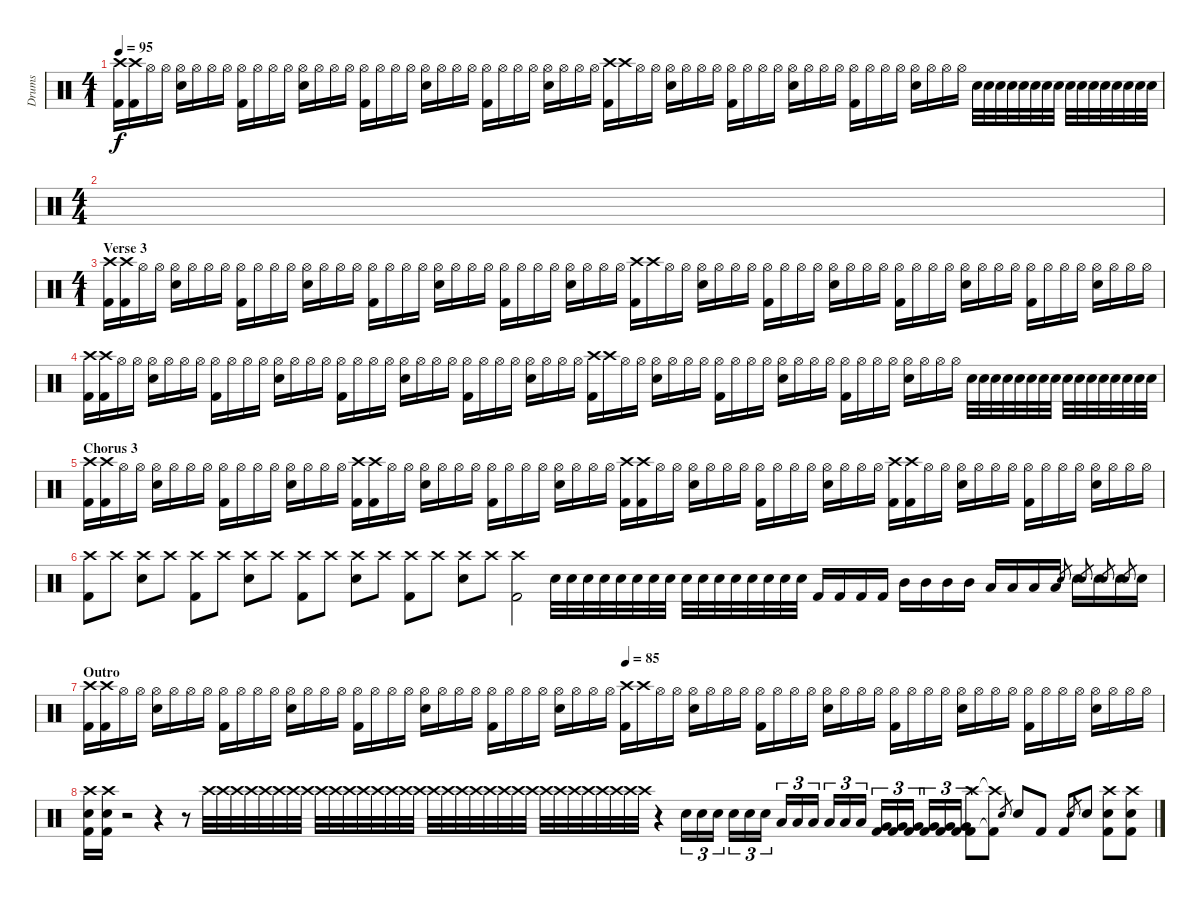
\track ("Drums" "Drums") {instrument percussion}
\staff {score}
\articulation defaults
\ts (4 1)
\tempo 95
\clef neutral
\ks c
("Crash high (hit)" "Kick (hit) 2").16{dy f} ("Crash high (hit)" "Kick (hit) 2").16 "Hi-Hat (open)".16 "Hi-Hat (open)".16 ("Hi-Hat (open)" "Electric Snare (hit)").16 "Hi-Hat (open)".16 "Hi-Hat (open)".16 "Hi-Hat (open)".16 ("Hi-Hat (open)" "Kick (hit) 2").16 "Hi-Hat (open)".16 "Hi-Hat (open)".16 "Hi-Hat (open)".16 ("Hi-Hat (open)" "Electric Snare (hit)").16 "Hi-Hat (open)".16 "Hi-Hat (open)".16 "Hi-Hat (open)".16 ("Hi-Hat (open)" "Kick (hit) 2").16 "Hi-Hat (open)".16 "Hi-Hat (open)".16 "Hi-Hat (open)".16 ("Hi-Hat (open)" "Electric Snare (hit)").16 "Hi-Hat (open)".16 "Hi-Hat (open)".16 "Hi-Hat (open)".16 ("Hi-Hat (open)" "Kick (hit) 2").16 "Hi-Hat (open)".16 "Hi-Hat (open)".16 "Hi-Hat (open)".16 ("Hi-Hat (open)" "Electric Snare (hit)").16 "Hi-Hat (open)".16 "Hi-Hat (open)".16 "Hi-Hat (open)".16 ("Crash high (hit)" "Kick (hit) 2").16 "Crash high (hit)".16 "Hi-Hat (open)".16 "Hi-Hat (open)".16 ("Hi-Hat (open)" "Electric Snare (hit)").16 "Hi-Hat (open)".16 "Hi-Hat (open)".16 "Hi-Hat (open)".16 ("Hi-Hat (open)" "Kick (hit) 2").16 "Hi-Hat (open)".16 "Hi-Hat (open)".16 "Hi-Hat (open)".16 ("Hi-Hat (open)" "Electric Snare (hit)").16 "Hi-Hat (open)".16 "Hi-Hat (open)".16 "Hi-Hat (open)".16 ("Hi-Hat (open)" "Kick (hit) 2").16 "Hi-Hat (open)".16 "Hi-Hat (open)".16 "Hi-Hat (open)".16 ("Hi-Hat (open)" "Electric Snare (hit)").16 "Hi-Hat (open)".16 "Hi-Hat (open)".16 "Hi-Hat (open)".16 "Electric Snare (hit)".32 "Electric Snare (hit)".32 "Electric Snare (hit)".32 "Electric Snare (hit)".32 "Electric Snare (hit)".32 "Electric Snare (hit)".32 "Electric Snare (hit)".32 "Electric Snare (hit)".32 "Electric Snare (hit)".32 "Electric Snare (hit)".32 "Electric Snare (hit)".32 "Electric Snare (hit)".32 "Electric Snare (hit)".32 "Electric Snare (hit)".32 "Electric Snare (hit)".32 "Electric Snare (hit)".32 |
\ts (4 4)
|
\ts (4 1)
\section ("" "Verse 3")
("Crash high (hit)" "Kick (hit) 2").16 ("Crash high (hit)" "Kick (hit) 2").16 "Hi-Hat (open)".16 "Hi-Hat (open)".16 ("Hi-Hat (open)" "Electric Snare (hit)").16 "Hi-Hat (open)".16 "Hi-Hat (open)".16 "Hi-Hat (open)".16 ("Hi-Hat (open)" "Kick (hit) 2").16 "Hi-Hat (open)".16 "Hi-Hat (open)".16 "Hi-Hat (open)".16 ("Hi-Hat (open)" "Electric Snare (hit)").16 "Hi-Hat (open)".16 "Hi-Hat (open)".16 "Hi-Hat (open)".16 ("Hi-Hat (open)" "Kick (hit) 2").16 "Hi-Hat (open)".16 "Hi-Hat (open)".16 "Hi-Hat (open)".16 ("Hi-Hat (open)" "Electric Snare (hit)").16 "Hi-Hat (open)".16 "Hi-Hat (open)".16 "Hi-Hat (open)".16 ("Hi-Hat (open)" "Kick (hit) 2").16 "Hi-Hat (open)".16 "Hi-Hat (open)".16 "Hi-Hat (open)".16 ("Hi-Hat (open)" "Electric Snare (hit)").16 "Hi-Hat (open)".16 "Hi-Hat (open)".16 "Hi-Hat (open)".16 ("Crash high (hit)" "Kick (hit) 2").16 "Crash high (hit)".16 "Hi-Hat (open)".16 "Hi-Hat (open)".16 ("Hi-Hat (open)" "Electric Snare (hit)").16 "Hi-Hat (open)".16 "Hi-Hat (open)".16 "Hi-Hat (open)".16 ("Hi-Hat (open)" "Kick (hit) 2").16 "Hi-Hat (open)".16 "Hi-Hat (open)".16 "Hi-Hat (open)".16 ("Hi-Hat (open)" "Electric Snare (hit)").16 "Hi-Hat (open)".16 "Hi-Hat (open)".16 "Hi-Hat (open)".16 ("Hi-Hat (open)" "Kick (hit) 2").16 "Hi-Hat (open)".16 "Hi-Hat (open)".16 "Hi-Hat (open)".16 ("Hi-Hat (open)" "Electric Snare (hit)").16 "Hi-Hat (open)".16 "Hi-Hat (open)".16 "Hi-Hat (open)".16 ("Hi-Hat (open)" "Kick (hit) 2").16 "Hi-Hat (open)".16 "Hi-Hat (open)".16 "Hi-Hat (open)".16 ("Hi-Hat (open)" "Electric Snare (hit)").16 "Hi-Hat (open)".16 "Hi-Hat (open)".16 "Hi-Hat (open)".16 |
("Crash high (hit)" "Kick (hit) 2").16 ("Crash high (hit)" "Kick (hit) 2").16 "Hi-Hat (open)".16 "Hi-Hat (open)".16 ("Hi-Hat (open)" "Electric Snare (hit)").16 "Hi-Hat (open)".16 "Hi-Hat (open)".16 "Hi-Hat (open)".16 ("Hi-Hat (open)" "Kick (hit) 2").16 "Hi-Hat (open)".16 "Hi-Hat (open)".16 "Hi-Hat (open)".16 ("Hi-Hat (open)" "Electric Snare (hit)").16 "Hi-Hat (open)".16 "Hi-Hat (open)".16 "Hi-Hat (open)".16 ("Hi-Hat (open)" "Kick (hit) 2").16 "Hi-Hat (open)".16 "Hi-Hat (open)".16 "Hi-Hat (open)".16 ("Hi-Hat (open)" "Electric Snare (hit)").16 "Hi-Hat (open)".16 "Hi-Hat (open)".16 "Hi-Hat (open)".16 ("Hi-Hat (open)" "Kick (hit) 2").16 "Hi-Hat (open)".16 "Hi-Hat (open)".16 "Hi-Hat (open)".16 ("Hi-Hat (open)" "Electric Snare (hit)").16 "Hi-Hat (open)".16 "Hi-Hat (open)".16 "Hi-Hat (open)".16 ("Crash high (hit)" "Kick (hit) 2").16 "Crash high (hit)".16 "Hi-Hat (open)".16 "Hi-Hat (open)".16 ("Hi-Hat (open)" "Electric Snare (hit)").16 "Hi-Hat (open)".16 "Hi-Hat (open)".16 "Hi-Hat (open)".16 ("Hi-Hat (open)" "Kick (hit) 2").16 "Hi-Hat (open)".16 "Hi-Hat (open)".16 "Hi-Hat (open)".16 ("Hi-Hat (open)" "Electric Snare (hit)").16 "Hi-Hat (open)".16 "Hi-Hat (open)".16 "Hi-Hat (open)".16 ("Hi-Hat (open)" "Kick (hit) 2").16 "Hi-Hat (open)".16 "Hi-Hat (open)".16 "Hi-Hat (open)".16 ("Hi-Hat (open)" "Electric Snare (hit)").16 "Hi-Hat (open)".16 "Hi-Hat (open)".16 "Hi-Hat (open)".16 "Electric Snare (hit)".32 "Electric Snare (hit)".32 "Electric Snare (hit)".32 "Electric Snare (hit)".32 "Electric Snare (hit)".32 "Electric Snare (hit)".32 "Electric Snare (hit)".32 "Electric Snare (hit)".32 "Electric Snare (hit)".32 "Electric Snare (hit)".32 "Electric Snare (hit)".32 "Electric Snare (hit)".32 "Electric Snare (hit)".32 "Electric Snare (hit)".32 "Electric Snare (hit)".32 "Electric Snare (hit)".32 |
\section ("" "Chorus 3")
("Crash high (hit)" "Kick (hit) 2").16 ("Crash high (hit)" "Kick (hit) 2").16 "Hi-Hat (open)".16 "Hi-Hat (open)".16 ("Hi-Hat (open)" "Electric Snare (hit)").16 "Hi-Hat (open)".16 "Hi-Hat (open)".16 "Hi-Hat (open)".16 ("Hi-Hat (open)" "Kick (hit) 2").16 "Hi-Hat (open)".16 "Hi-Hat (open)".16 "Hi-Hat (open)".16 ("Hi-Hat (open)" "Electric Snare (hit)").16 "Hi-Hat (open)".16 "Hi-Hat (open)".16 "Hi-Hat (open)".16 ("Crash high (hit)" "Kick (hit) 2").16 ("Crash high (hit)" "Kick (hit) 2").16 "Hi-Hat (open)".16 "Hi-Hat (open)".16 ("Hi-Hat (open)" "Electric Snare (hit)").16 "Hi-Hat (open)".16 "Hi-Hat (open)".16 "Hi-Hat (open)".16 ("Hi-Hat (open)" "Kick (hit) 2").16 "Hi-Hat (open)".16 "Hi-Hat (open)".16 "Hi-Hat (open)".16 ("Hi-Hat (open)" "Electric Snare (hit)").16 "Hi-Hat (open)".16 "Hi-Hat (open)".16 "Hi-Hat (open)".16 ("Crash high (hit)" "Kick (hit) 2").16 ("Crash high (hit)" "Kick (hit) 2").16 "Hi-Hat (open)".16 "Hi-Hat (open)".16 ("Hi-Hat (open)" "Electric Snare (hit)").16 "Hi-Hat (open)".16 "Hi-Hat (open)".16 "Hi-Hat (open)".16 ("Hi-Hat (open)" "Kick (hit) 2").16 "Hi-Hat (open)".16 "Hi-Hat (open)".16 "Hi-Hat (open)".16 ("Hi-Hat (open)" "Electric Snare (hit)").16 "Hi-Hat (open)".16 "Hi-Hat (open)".16 "Hi-Hat (open)".16 ("Crash high (hit)" "Kick (hit) 2").16 ("Crash high (hit)" "Kick (hit) 2").16 "Hi-Hat (open)".16 "Hi-Hat (open)".16 ("Hi-Hat (open)" "Electric Snare (hit)").16 "Hi-Hat (open)".16 "Hi-Hat (open)".16 "Hi-Hat (open)".16 ("Hi-Hat (open)" "Kick (hit) 2").16 "Hi-Hat (open)".16 "Hi-Hat (open)".16 "Hi-Hat (open)".16 ("Hi-Hat (open)" "Electric Snare (hit)").16 "Hi-Hat (open)".16 "Hi-Hat (open)".16 "Hi-Hat (open)".16 |
("Crash high (hit)" "Kick (hit) 2").8 "Crash high (hit)".8 ("Crash high (hit)" "Electric Snare (hit)").8 "Crash high (hit)".8 ("Crash high (hit)" "Kick (hit) 2").8 "Crash high (hit)".8 ("Crash high (hit)" "Electric Snare (hit)").8 "Crash high (hit)".8 ("Crash high (hit)" "Kick (hit) 2").8 "Crash high (hit)".8 ("Crash high (hit)" "Electric Snare (hit)").8 "Crash high (hit)".8 ("Crash high (hit)" "Kick (hit) 2").8 "Crash high (hit)".8 ("Crash high (hit)" "Electric Snare (hit)").8 "Crash high (hit)".8 ("Crash high (hit)" "Kick (hit) 2").2 "Electric Snare (hit)".32 "Electric Snare (hit)".32 "Electric Snare (hit)".32 "Electric Snare (hit)".32 "Electric Snare (hit)".32 "Electric Snare (hit)".32 "Electric Snare (hit)".32 "Electric Snare (hit)".32 "Electric Snare (hit)".32 "Electric Snare (hit)".32 "Electric Snare (hit)".32 "Electric Snare (hit)".32 "Electric Snare (hit)".32 "Electric Snare (hit)".32 "Electric Snare (hit)".32 "Electric Snare (hit)".32 "Kick (hit) 2".16 "Kick (hit) 2".16 "Kick (hit) 2".16 "Kick (hit) 2".16 "Mid Tom (hit)".16 "Mid Tom (hit)".16 "Mid Tom (hit)".16 "Mid Tom (hit)".16 "Low Tom (hit)".16 "Low Tom (hit)".16 "Low Tom (hit)".16 "Low Tom (hit)".16 "Electric Snare (hit)".8{gr} "Electric Snare (hit)".16 "Electric Snare (hit)".8{gr} "Electric Snare (hit)".16 "Electric Snare (hit)".8{gr} "Electric Snare (hit)".16 "Electric Snare (hit)".8{gr} "Electric Snare (hit)".16 |
\section ("" "Outro")
\tempo (85 0.5)
("Crash high (hit)" "Kick (hit) 2").16 ("Crash high (hit)" "Kick (hit) 2").16 "Hi-Hat (open)".16 "Hi-Hat (open)".16 ("Hi-Hat (open)" "Electric Snare (hit)").16 "Hi-Hat (open)".16 "Hi-Hat (open)".16 "Hi-Hat (open)".16 ("Hi-Hat (open)" "Kick (hit) 2").16 "Hi-Hat (open)".16 "Hi-Hat (open)".16 "Hi-Hat (open)".16 ("Hi-Hat (open)" "Electric Snare (hit)").16 "Hi-Hat (open)".16 "Hi-Hat (open)".16 "Hi-Hat (open)".16 ("Hi-Hat (open)" "Kick (hit) 2").16 "Hi-Hat (open)".16 "Hi-Hat (open)".16 "Hi-Hat (open)".16 ("Hi-Hat (open)" "Electric Snare (hit)").16 "Hi-Hat (open)".16 "Hi-Hat (open)".16 "Hi-Hat (open)".16 ("Hi-Hat (open)" "Kick (hit) 2").16 "Hi-Hat (open)".16 "Hi-Hat (open)".16 "Hi-Hat (open)".16 ("Hi-Hat (open)" "Electric Snare (hit)").16 "Hi-Hat (open)".16 "Hi-Hat (open)".16 "Hi-Hat (open)".16 ("Crash high (hit)" "Kick (hit) 2").16 "Crash high (hit)".16 "Hi-Hat (open)".16 "Hi-Hat (open)".16 ("Hi-Hat (open)" "Electric Snare (hit)").16 "Hi-Hat (open)".16 "Hi-Hat (open)".16 "Hi-Hat (open)".16 ("Hi-Hat (open)" "Kick (hit) 2").16 "Hi-Hat (open)".16 "Hi-Hat (open)".16 "Hi-Hat (open)".16 ("Hi-Hat (open)" "Electric Snare (hit)").16 "Hi-Hat (open)".16 "Hi-Hat (open)".16 "Hi-Hat (open)".16 ("Hi-Hat (open)" "Kick (hit) 2").16 "Hi-Hat (open)".16 "Hi-Hat (open)".16 "Hi-Hat (open)".16 ("Hi-Hat (open)" "Electric Snare (hit)").16 "Hi-Hat (open)".16 "Hi-Hat (open)".16 "Hi-Hat (open)".16 ("Hi-Hat (open)" "Kick (hit) 2").16 "Hi-Hat (open)".16 "Hi-Hat (open)".16 "Hi-Hat (open)".16 ("Hi-Hat (open)" "Electric Snare (hit)").16 "Hi-Hat (open)".16 "Hi-Hat (open)".16 "Hi-Hat (open)".16 |
("Crash high (hit)" "Electric Snare (hit)" "Kick (hit) 2").16 ("Crash high (hit)" "Electric Snare (hit)" "Kick (hit) 2").16 r.2 r.4 r.8 "Crash high (hit)".32 "Crash high (hit)".32 "Crash high (hit)".32 "Crash high (hit)".32 "Crash high (hit)".32 "Crash high (hit)".32 "Crash high (hit)".32 "Crash high (hit)".32 "Crash high (hit)".32 "Crash high (hit)".32 "Crash high (hit)".32 "Crash high (hit)".32 "Crash high (hit)".32 "Crash high (hit)".32 "Crash high (hit)".32 "Crash high (hit)".32 "Crash high (hit)".32 "Crash high (hit)".32 "Crash high (hit)".32 "Crash high (hit)".32 "Crash high (hit)".32 "Crash high (hit)".32 "Crash high (hit)".32 "Crash high (hit)".32 "Crash high (hit)".32 "Crash high (hit)".32 "Crash high (hit)".32 "Crash high (hit)".32 "Crash high (hit)".32 "Crash high (hit)".32 "Crash high (hit)".32 "Crash high (hit)".32 r.4 "Electric Snare (hit)".16{tu (3 2)} "Electric Snare (hit)".16{tu (3 2)} "Electric Snare (hit)".16{tu (3 2)} "Electric Snare (hit)".16{tu (3 2)} "Electric Snare (hit)".16{tu (3 2)} "Electric Snare (hit)".16{tu (3 2)} "Low Tom (hit)".16{tu (3 2)} "Low Tom (hit)".16{tu (3 2)} "Low Tom (hit)".16{tu (3 2)} "Low Tom (hit)".16{tu (3 2)} "Low Tom (hit)".16{tu (3 2)} "Low Tom (hit)".16{tu (3 2)} ("Very Low Tom (hit)" "Kick (hit) 2").16{tu (3 2)} ("Very Low Tom (hit)" "Kick (hit) 2").16{tu (3 2)} ("Very Low Tom (hit)" "Kick (hit) 2").16{tu (3 2)} ("Very Low Tom (hit)" "Kick (hit) 2").16{tu (3 2)} ("Very Low Tom (hit)" "Kick (hit) 2").16{tu (3 2)} ("Very Low Tom (hit)" "Kick (hit) 2").16{tu (3 2)} ("Crash high (hit)" "Kick (hit) 2").8 ("Crash high (hit)"{t} "Kick (hit) 2"{t}).8 "Electric Snare (hit)".8{gr} "Electric Snare (hit)".8 "Kick (hit) 2".8 "Kick (hit) 2".8 "Electric Snare (hit)".8{gr} "Electric Snare (hit)".8 ("Crash high (hit)" "Electric Snare (hit)" "Kick (hit) 2").8 ("Crash high (hit)" "Electric Snare (hit)" "Kick (hit) 2").8
